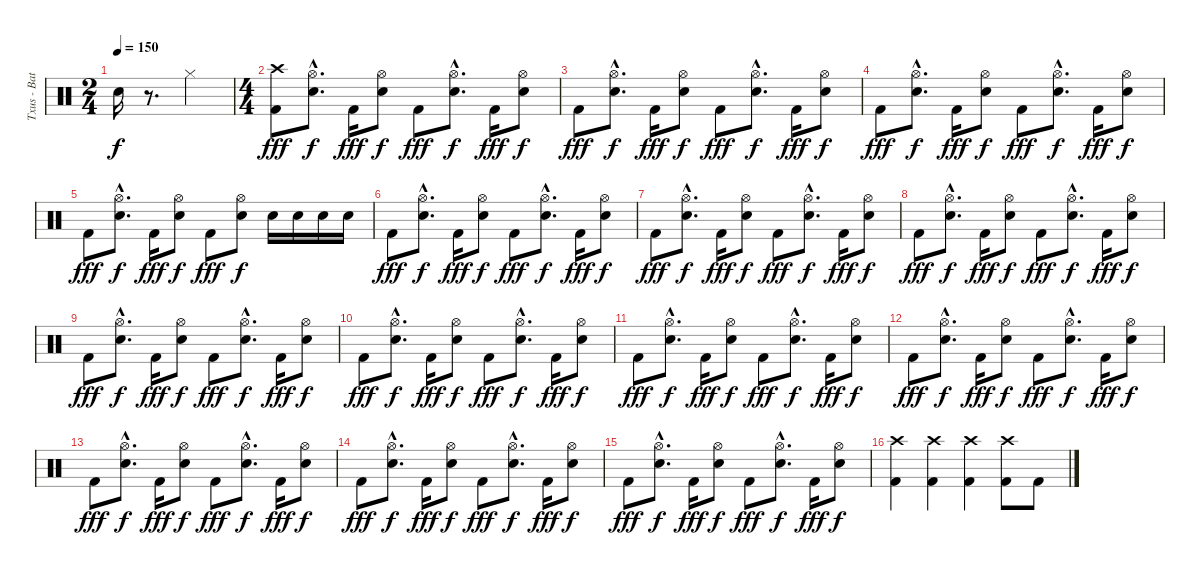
\track ("Txus - Batería" "Txus - Bat") {instrument percussion}
\staff {score}
\articulation defaults
\ts (2 4)
\tempo 150
\clef neutral
\ks c "Electric Snare (hit)".16{dy f}
r.8{d} "Hi-Hat (closed)".4 |
\ts (4 4)
("Crash high (hit)" "Kick (hit) 2").8{dy fff} ("Hi-Hat (open)"{hac} "Electric Snare (hit)"{hac}).8{d dy f} "Kick (hit) 2".16{dy fff} ("Hi-Hat (open)" "Electric Snare (hit)").8{dy f} "Kick (hit) 2".8{dy fff} ("Hi-Hat (open)"{hac} "Electric Snare (hit)"{hac}).8{d dy f} "Kick (hit) 2".16{dy fff} ("Hi-Hat (open)" "Electric Snare (hit)").8{dy f} |
"Kick (hit) 2".8{dy fff} ("Hi-Hat (open)"{hac} "Electric Snare (hit)"{hac}).8{d dy f} "Kick (hit) 2".16{dy fff} ("Hi-Hat (open)" "Electric Snare (hit)").8{dy f} "Kick (hit) 2".8{dy fff} ("Hi-Hat (open)"{hac} "Electric Snare (hit)"{hac}).8{d dy f} "Kick (hit) 2".16{dy fff} ("Hi-Hat (open)" "Electric Snare (hit)").8{dy f} |
"Kick (hit) 2".8{dy fff} ("Hi-Hat (open)"{hac} "Electric Snare (hit)"{hac}).8{d dy f} "Kick (hit) 2".16{dy fff} ("Hi-Hat (open)" "Electric Snare (hit)").8{dy f} "Kick (hit) 2".8{dy fff} ("Hi-Hat (open)"{hac} "Electric Snare (hit)"{hac}).8{d dy f} "Kick (hit) 2".16{dy fff} ("Hi-Hat (open)" "Electric Snare (hit)").8{dy f} |
"Kick (hit) 2".8{dy fff} ("Hi-Hat (open)"{hac} "Electric Snare (hit)"{hac}).8{d dy f} "Kick (hit) 2".16{dy fff} ("Hi-Hat (open)" "Electric Snare (hit)").8{dy f} "Kick (hit) 2".8{dy fff} ("Hi-Hat (open)" "Electric Snare (hit)").8{dy f} "Electric Snare (hit)".16 "Electric Snare (hit)".16 "Electric Snare (hit)".16 "Electric Snare (hit)".16 |
"Kick (hit) 2".8{dy fff} ("Hi-Hat (open)"{hac} "Electric Snare (hit)"{hac}).8{d dy f} "Kick (hit) 2".16{dy fff} ("Hi-Hat (open)" "Electric Snare (hit)").8{dy f} "Kick (hit) 2".8{dy fff} ("Hi-Hat (open)"{hac} "Electric Snare (hit)"{hac}).8{d dy f} "Kick (hit) 2".16{dy fff} ("Hi-Hat (open)" "Electric Snare (hit)").8{dy f} |
"Kick (hit) 2".8{dy fff} ("Hi-Hat (open)"{hac} "Electric Snare (hit)"{hac}).8{d dy f} "Kick (hit) 2".16{dy fff} ("Hi-Hat (open)" "Electric Snare (hit)").8{dy f} "Kick (hit) 2".8{dy fff} ("Hi-Hat (open)"{hac} "Electric Snare (hit)"{hac}).8{d dy f} "Kick (hit) 2".16{dy fff} ("Hi-Hat (open)" "Electric Snare (hit)").8{dy f} |
"Kick (hit) 2".8{dy fff} ("Hi-Hat (open)"{hac} "Electric Snare (hit)"{hac}).8{d dy f} "Kick (hit) 2".16{dy fff} ("Hi-Hat (open)" "Electric Snare (hit)").8{dy f} "Kick (hit) 2".8{dy fff} ("Hi-Hat (open)"{hac} "Electric Snare (hit)"{hac}).8{d dy f} "Kick (hit) 2".16{dy fff} ("Hi-Hat (open)" "Electric Snare (hit)").8{dy f} |
"Kick (hit) 2".8{dy fff} ("Hi-Hat (open)"{hac} "Electric Snare (hit)"{hac}).8{d dy f} "Kick (hit) 2".16{dy fff} ("Hi-Hat (open)" "Electric Snare (hit)").8{dy f} "Kick (hit) 2".8{dy fff} ("Hi-Hat (open)"{hac} "Electric Snare (hit)"{hac}).8{d dy f} "Kick (hit) 2".16{dy fff} ("Hi-Hat (open)" "Electric Snare (hit)").8{dy f} |
"Kick (hit) 2".8{dy fff} ("Hi-Hat (open)"{hac} "Electric Snare (hit)"{hac}).8{d dy f} "Kick (hit) 2".16{dy fff} ("Hi-Hat (open)" "Electric Snare (hit)").8{dy f} "Kick (hit) 2".8{dy fff} ("Hi-Hat (open)"{hac} "Electric Snare (hit)"{hac}).8{d dy f} "Kick (hit) 2".16{dy fff} ("Hi-Hat (open)" "Electric Snare (hit)").8{dy f} |
"Kick (hit) 2".8{dy fff} ("Hi-Hat (open)"{hac} "Electric Snare (hit)"{hac}).8{d dy f} "Kick (hit) 2".16{dy fff} ("Hi-Hat (open)" "Electric Snare (hit)").8{dy f} "Kick (hit) 2".8{dy fff} ("Hi-Hat (open)"{hac} "Electric Snare (hit)"{hac}).8{d dy f} "Kick (hit) 2".16{dy fff} ("Hi-Hat (open)" "Electric Snare (hit)").8{dy f} |
"Kick (hit) 2".8{dy fff} ("Hi-Hat (open)"{hac} "Electric Snare (hit)"{hac}).8{d dy f} "Kick (hit) 2".16{dy fff} ("Hi-Hat (open)" "Electric Snare (hit)").8{dy f} "Kick (hit) 2".8{dy fff} ("Hi-Hat (open)"{hac} "Electric Snare (hit)"{hac}).8{d dy f} "Kick (hit) 2".16{dy fff} ("Hi-Hat (open)" "Electric Snare (hit)").8{dy f} |
"Kick (hit) 2".8{dy fff} ("Hi-Hat (open)"{hac} "Electric Snare (hit)"{hac}).8{d dy f} "Kick (hit) 2".16{dy fff} ("Hi-Hat (open)" "Electric Snare (hit)").8{dy f} "Kick (hit) 2".8{dy fff} ("Hi-Hat (open)"{hac} "Electric Snare (hit)"{hac}).8{d dy f} "Kick (hit) 2".16{dy fff} ("Hi-Hat (open)" "Electric Snare (hit)").8{dy f} |
"Kick (hit) 2".8{dy fff} ("Hi-Hat (open)"{hac} "Electric Snare (hit)"{hac}).8{d dy f} "Kick (hit) 2".16{dy fff} ("Hi-Hat (open)" "Electric Snare (hit)").8{dy f} "Kick (hit) 2".8{dy fff} ("Hi-Hat (open)"{hac} "Electric Snare (hit)"{hac}).8{d dy f} "Kick (hit) 2".16{dy fff} ("Hi-Hat (open)" "Electric Snare (hit)").8{dy f} |
"Kick (hit) 2".8{dy fff} ("Hi-Hat (open)"{hac} "Electric Snare (hit)"{hac}).8{d dy f} "Kick (hit) 2".16{dy fff} ("Hi-Hat (open)" "Electric Snare (hit)").8{dy f} "Kick (hit) 2".8{dy fff} ("Hi-Hat (open)"{hac} "Electric Snare (hit)"{hac}).8{d dy f} "Kick (hit) 2".16{dy fff} ("Hi-Hat (open)" "Electric Snare (hit)").8{dy f} |
("Crash high (hit)" "Kick (hit) 2").4 ("Crash high (hit)" "Kick (hit) 2").4 ("Crash high (hit)" "Kick (hit) 2").4 ("Crash high (hit)" "Kick (hit) 2").8 "Kick (hit) 2".8
